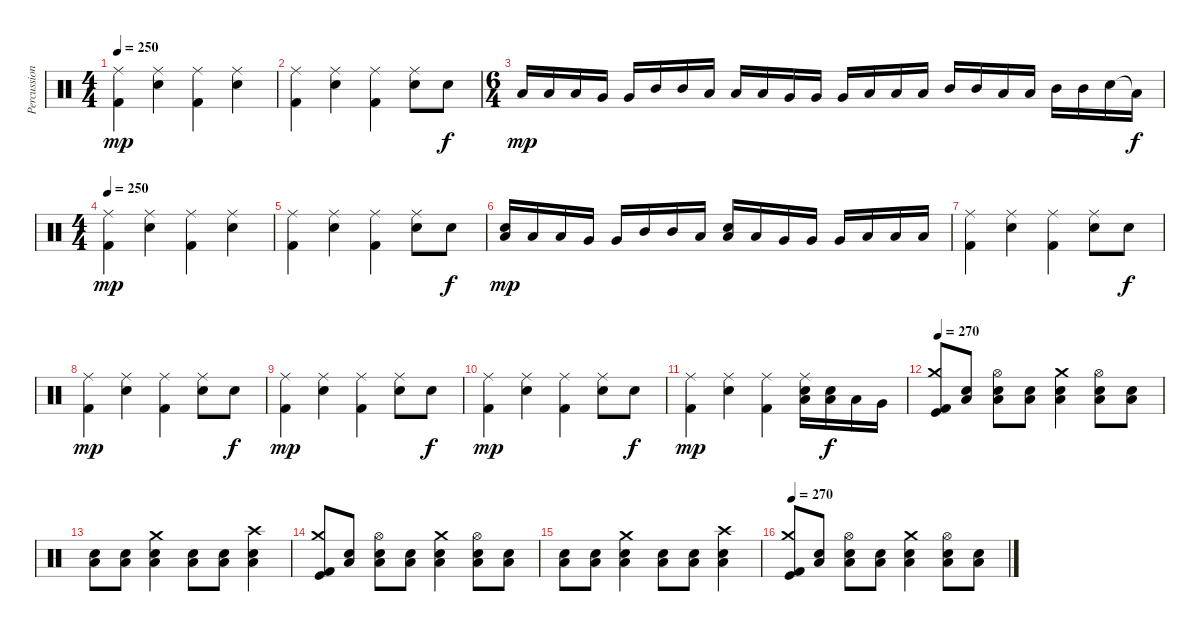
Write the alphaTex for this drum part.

\track ("Percussion" "Percussion") {instrument percussion}
\staff {score}
\articulation defaults
\ts (4 4)
\tempo 250
\clef neutral
\ks c
("Ride (middle)" "Kick (hit) 2").4{dy mp} ("Ride (middle)" "Electric Snare (hit)").4 ("Ride (middle)" "Kick (hit) 2").4 ("Ride (middle)" "Electric Snare (hit)").4 |
("Ride (middle)" "Kick (hit) 2").4 ("Ride (middle)" "Electric Snare (hit)").4 ("Ride (middle)" "Kick (hit) 2").4 ("Ride (middle)" "Electric Snare (hit)").8 "Electric Snare (hit)".8{dy f} |
\ts (6 4)
"Low Floor Tom (hit)".16{dy mp} "Low Floor Tom (hit)".16 "Low Floor Tom (hit)".16 "Very Low Tom (hit)".16 "Very Low Tom (hit)".16 "Mid Tom (hit)".16 "Mid Tom (hit)".16 "Low Floor Tom (hit)".16 "Low Floor Tom (hit)".16 "Low Floor Tom (hit)".16 "Very Low Tom (hit)".16 "Very Low Tom (hit)".16 "Very Low Tom (hit)".16 "Low Tom (hit)".16 "Low Tom (hit)".16 "Low Tom (hit)".16 "Mid Tom (hit)".16 "Mid Tom (hit)".16 "Low Tom (hit)".16 "Low Tom (hit)".16 "Mid Tom (hit)".16 "Mid Tom (hit)".16 "Electric Snare (hit)".16 "Low Tom (hit)"{t}.16{dy f} |
\ts (4 4)
\tempo 250
("Ride (middle)" "Kick (hit) 2").4{dy mp} ("Ride (middle)" "Electric Snare (hit)").4 ("Ride (middle)" "Kick (hit) 2").4 ("Ride (middle)" "Electric Snare (hit)").4 |
("Ride (middle)" "Kick (hit) 2").4 ("Ride (middle)" "Electric Snare (hit)").4 ("Ride (middle)" "Kick (hit) 2").4 ("Ride (middle)" "Electric Snare (hit)").8 "Electric Snare (hit)".8{dy f} |
("Electric Snare (hit)" "Low Floor Tom (hit)").16{dy mp} "Low Floor Tom (hit)".16 "Low Floor Tom (hit)".16 "Very Low Tom (hit)".16 "Very Low Tom (hit)".16 "Mid Tom (hit)".16 "Mid Tom (hit)".16 "Low Floor Tom (hit)".16 ("Electric Snare (hit)" "Low Floor Tom (hit)").16 "Low Floor Tom (hit)".16 "Very Low Tom (hit)".16 "Very Low Tom (hit)".16 "Very Low Tom (hit)".16 "Low Tom (hit)".16 "Low Tom (hit)".16 "Low Tom (hit)".16 |
("Ride (middle)" "Kick (hit) 2").4 ("Ride (middle)" "Electric Snare (hit)").4 ("Ride (middle)" "Kick (hit) 2").4 ("Ride (middle)" "Electric Snare (hit)").8 "Electric Snare (hit)".8{dy f} |
("Ride (middle)" "Kick (hit) 2").4{dy mp} ("Ride (middle)" "Electric Snare (hit)").4 ("Ride (middle)" "Kick (hit) 2").4 ("Ride (middle)" "Electric Snare (hit)").8 "Electric Snare (hit)".8{dy f} |
("Ride (middle)" "Kick (hit) 2").4{dy mp} ("Ride (middle)" "Electric Snare (hit)").4 ("Ride (middle)" "Kick (hit) 2").4 ("Ride (middle)" "Electric Snare (hit)").8 "Electric Snare (hit)".8{dy f} |
("Ride (middle)" "Kick (hit) 2").4{dy mp} ("Ride (middle)" "Electric Snare (hit)").4 ("Ride (middle)" "Kick (hit) 2").4 ("Ride (middle)" "Electric Snare (hit)").8 "Electric Snare (hit)".8{dy f} |
("Ride (middle)" "Kick (hit) 2").4{dy mp} ("Ride (middle)" "Electric Snare (hit)").4 ("Ride (middle)" "Kick (hit) 2").4 ("Ride (middle)" "Low Floor Tom (hit)" "Electric Snare (hit)").16 ("Low Floor Tom (hit)" "Electric Snare (hit)").16{dy f} "Low Floor Tom (hit)".16 "Very Low Tom (hit)".16 |
\tempo 270
("Crash medium (hit)" "Kick (hit)" "Kick (hit) 2").8 ("Electric Snare (hit)" "Low Floor Tom (hit)").8 ("Hi-Hat (open)" "Electric Snare (hit)" "Low Floor Tom (hit)").8 ("Electric Snare (hit)" "Low Floor Tom (hit)").8 ("Crash medium (hit)" "Electric Snare (hit)" "Low Floor Tom (hit)").4 ("Hi-Hat (open)" "Electric Snare (hit)" "Low Floor Tom (hit)").8 ("Electric Snare (hit)" "Low Floor Tom (hit)").8 |
("Electric Snare (hit)" "Low Floor Tom (hit)").8 ("Electric Snare (hit)" "Low Floor Tom (hit)").8 ("Crash medium (hit)" "Electric Snare (hit)" "Low Floor Tom (hit)").4 ("Electric Snare (hit)" "Low Floor Tom (hit)").8 ("Electric Snare (hit)" "Low Floor Tom (hit)").8 ("Crash high (hit)" "Electric Snare (hit)" "Low Floor Tom (hit)").4 |
("Crash medium (hit)" "Kick (hit)" "Kick (hit) 2").8 ("Electric Snare (hit)" "Low Floor Tom (hit)").8 ("Hi-Hat (open)" "Electric Snare (hit)" "Low Floor Tom (hit)").8 ("Electric Snare (hit)" "Low Floor Tom (hit)").8 ("Crash medium (hit)" "Electric Snare (hit)" "Low Floor Tom (hit)").4 ("Hi-Hat (open)" "Electric Snare (hit)" "Low Floor Tom (hit)").8 ("Electric Snare (hit)" "Low Floor Tom (hit)").8 |
("Electric Snare (hit)" "Low Floor Tom (hit)").8 ("Electric Snare (hit)" "Low Floor Tom (hit)").8 ("Crash medium (hit)" "Electric Snare (hit)" "Low Floor Tom (hit)").4 ("Electric Snare (hit)" "Low Floor Tom (hit)").8 ("Electric Snare (hit)" "Low Floor Tom (hit)").8 ("Crash high (hit)" "Electric Snare (hit)" "Low Floor Tom (hit)").4 |
\tempo 270
("Crash medium (hit)" "Kick (hit)" "Kick (hit) 2").8 ("Electric Snare (hit)" "Low Floor Tom (hit)").8 ("Hi-Hat (open)" "Electric Snare (hit)" "Low Floor Tom (hit)").8 ("Electric Snare (hit)" "Low Floor Tom (hit)").8 ("Crash medium (hit)" "Electric Snare (hit)" "Low Floor Tom (hit)").4 ("Hi-Hat (open)" "Electric Snare (hit)" "Low Floor Tom (hit)").8 ("Electric Snare (hit)" "Low Floor Tom (hit)").8
